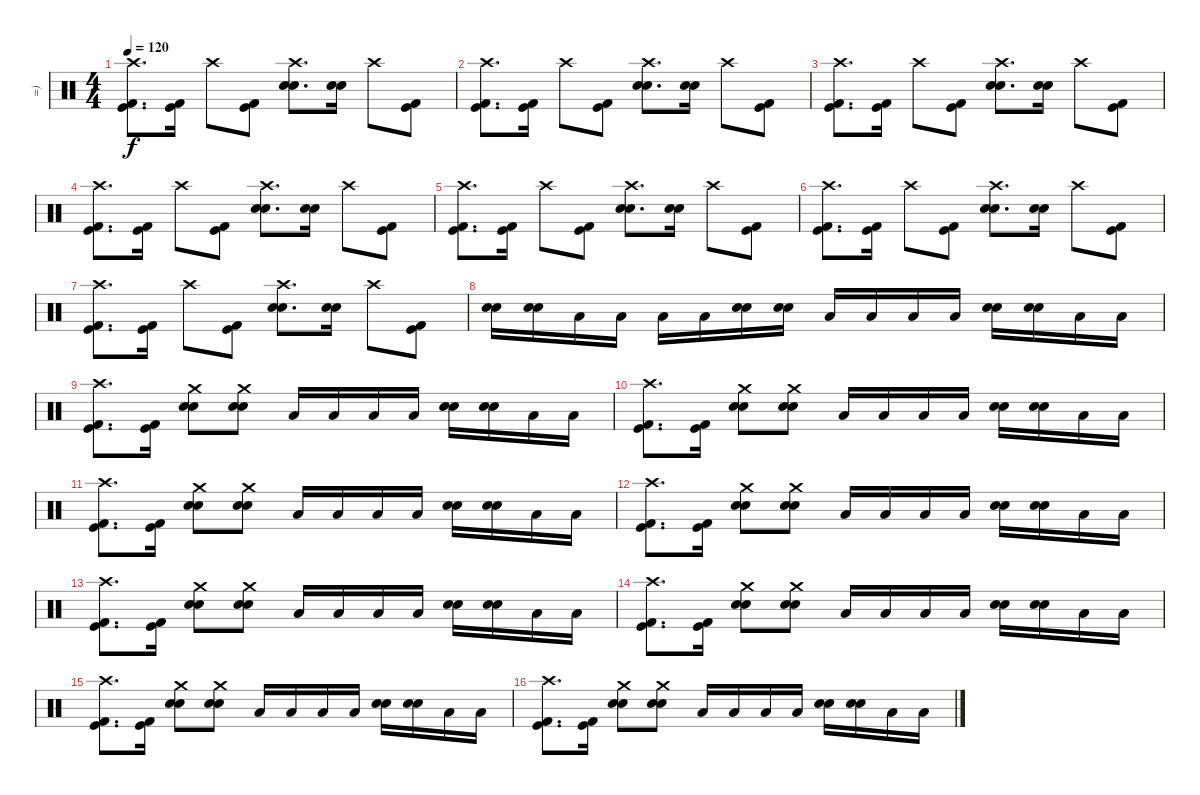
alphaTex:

\track ("=)" "=)") {instrument percussion}
\staff {score}
\articulation defaults
\ts (4 4)
\tempo 120
\clef neutral
\ks c
("Crash high (hit)" "Kick (hit)" "Kick (hit) 2").8{d dy f} ("Kick (hit)" "Kick (hit) 2").16 "Crash high (hit)".8 ("Kick (hit)" "Kick (hit) 2").8 ("Crash high (hit)" "Snare (hit) 2" "Electric Snare (hit)").8{d} ("Snare (hit) 2" "Electric Snare (hit)").16 "Crash high (hit)".8 ("Kick (hit)" "Kick (hit) 2").8 |
("Crash high (hit)" "Kick (hit)" "Kick (hit) 2").8{d} ("Kick (hit)" "Kick (hit) 2").16 "Crash high (hit)".8 ("Kick (hit)" "Kick (hit) 2").8 ("Crash high (hit)" "Snare (hit) 2" "Electric Snare (hit)").8{d} ("Snare (hit) 2" "Electric Snare (hit)").16 "Crash high (hit)".8 ("Kick (hit)" "Kick (hit) 2").8 |
("Crash high (hit)" "Kick (hit)" "Kick (hit) 2").8{d} ("Kick (hit)" "Kick (hit) 2").16 "Crash high (hit)".8 ("Kick (hit)" "Kick (hit) 2").8 ("Crash high (hit)" "Snare (hit) 2" "Electric Snare (hit)").8{d} ("Snare (hit) 2" "Electric Snare (hit)").16 "Crash high (hit)".8 ("Kick (hit)" "Kick (hit) 2").8 |
("Crash high (hit)" "Kick (hit)" "Kick (hit) 2").8{d} ("Kick (hit)" "Kick (hit) 2").16 "Crash high (hit)".8 ("Kick (hit)" "Kick (hit) 2").8 ("Crash high (hit)" "Snare (hit) 2" "Electric Snare (hit)").8{d} ("Snare (hit) 2" "Electric Snare (hit)").16 "Crash high (hit)".8 ("Kick (hit)" "Kick (hit) 2").8 |
("Crash high (hit)" "Kick (hit)" "Kick (hit) 2").8{d} ("Kick (hit)" "Kick (hit) 2").16 "Crash high (hit)".8 ("Kick (hit)" "Kick (hit) 2").8 ("Crash high (hit)" "Snare (hit) 2" "Electric Snare (hit)").8{d} ("Snare (hit) 2" "Electric Snare (hit)").16 "Crash high (hit)".8 ("Kick (hit)" "Kick (hit) 2").8 |
("Crash high (hit)" "Kick (hit)" "Kick (hit) 2").8{d} ("Kick (hit)" "Kick (hit) 2").16 "Crash high (hit)".8 ("Kick (hit)" "Kick (hit) 2").8 ("Crash high (hit)" "Snare (hit) 2" "Electric Snare (hit)").8{d} ("Snare (hit) 2" "Electric Snare (hit)").16 "Crash high (hit)".8 ("Kick (hit)" "Kick (hit) 2").8 |
("Crash high (hit)" "Kick (hit)" "Kick (hit) 2").8{d} ("Kick (hit)" "Kick (hit) 2").16 "Crash high (hit)".8 ("Kick (hit)" "Kick (hit) 2").8 ("Crash high (hit)" "Snare (hit) 2" "Electric Snare (hit)").8{d} ("Snare (hit) 2" "Electric Snare (hit)").16 "Crash high (hit)".8 ("Kick (hit)" "Kick (hit) 2").8 |
("Electric Snare (hit)" "Snare (hit) 2").16 ("Electric Snare (hit)" "Snare (hit) 2").16 "Low Floor Tom (hit)".16 "Low Floor Tom (hit)".16 "Low Tom (hit)".16 "Low Floor Tom (hit)".16 ("Electric Snare (hit)" "Snare (hit) 2").16 ("Electric Snare (hit)" "Snare (hit) 2").16 "Low Floor Tom (hit)".16 "Low Floor Tom (hit)".16 "Low Tom (hit)".16 "Low Floor Tom (hit)".16 ("Electric Snare (hit)" "Snare (hit) 2").16 ("Electric Snare (hit)" "Snare (hit) 2").16 "Low Tom (hit)".16 "Low Floor Tom (hit)".16 |
("Crash high (hit)" "Kick (hit)" "Kick (hit) 2").8{d} ("Kick (hit)" "Kick (hit) 2").16 ("Crash medium (hit)" "Snare (hit) 2" "Electric Snare (hit)").8 ("Crash medium (hit)" "Snare (hit) 2" "Electric Snare (hit)").8 "Low Floor Tom (hit)".16 "Low Tom (hit)".16 "Low Floor Tom (hit)".16 "Low Floor Tom (hit)".16 ("Snare (hit) 2" "Electric Snare (hit)").16 ("Snare (hit) 2" "Electric Snare (hit)").16 "Low Floor Tom (hit)".16 "Low Tom (hit)".16 |
("Crash high (hit)" "Kick (hit)" "Kick (hit) 2").8{d} ("Kick (hit)" "Kick (hit) 2").16 ("Crash medium (hit)" "Snare (hit) 2" "Electric Snare (hit)").8 ("Crash medium (hit)" "Snare (hit) 2" "Electric Snare (hit)").8 "Low Floor Tom (hit)".16 "Low Tom (hit)".16 "Low Floor Tom (hit)".16 "Low Floor Tom (hit)".16 ("Snare (hit) 2" "Electric Snare (hit)").16 ("Snare (hit) 2" "Electric Snare (hit)").16 "Low Floor Tom (hit)".16 "Low Tom (hit)".16 |
("Crash high (hit)" "Kick (hit)" "Kick (hit) 2").8{d} ("Kick (hit)" "Kick (hit) 2").16 ("Crash medium (hit)" "Snare (hit) 2" "Electric Snare (hit)").8 ("Crash medium (hit)" "Snare (hit) 2" "Electric Snare (hit)").8 "Low Floor Tom (hit)".16 "Low Tom (hit)".16 "Low Floor Tom (hit)".16 "Low Floor Tom (hit)".16 ("Snare (hit) 2" "Electric Snare (hit)").16 ("Snare (hit) 2" "Electric Snare (hit)").16 "Low Floor Tom (hit)".16 "Low Tom (hit)".16 |
("Crash high (hit)" "Kick (hit)" "Kick (hit) 2").8{d} ("Kick (hit)" "Kick (hit) 2").16 ("Crash medium (hit)" "Snare (hit) 2" "Electric Snare (hit)").8 ("Crash medium (hit)" "Snare (hit) 2" "Electric Snare (hit)").8 "Low Floor Tom (hit)".16 "Low Tom (hit)".16 "Low Floor Tom (hit)".16 "Low Floor Tom (hit)".16 ("Snare (hit) 2" "Electric Snare (hit)").16 ("Snare (hit) 2" "Electric Snare (hit)").16 "Low Floor Tom (hit)".16 "Low Tom (hit)".16 |
("Crash high (hit)" "Kick (hit)" "Kick (hit) 2").8{d} ("Kick (hit)" "Kick (hit) 2").16 ("Crash medium (hit)" "Snare (hit) 2" "Electric Snare (hit)").8 ("Crash medium (hit)" "Snare (hit) 2" "Electric Snare (hit)").8 "Low Floor Tom (hit)".16 "Low Tom (hit)".16 "Low Floor Tom (hit)".16 "Low Floor Tom (hit)".16 ("Snare (hit) 2" "Electric Snare (hit)").16 ("Snare (hit) 2" "Electric Snare (hit)").16 "Low Floor Tom (hit)".16 "Low Tom (hit)".16 |
("Crash high (hit)" "Kick (hit)" "Kick (hit) 2").8{d} ("Kick (hit)" "Kick (hit) 2").16 ("Crash medium (hit)" "Snare (hit) 2" "Electric Snare (hit)").8 ("Crash medium (hit)" "Snare (hit) 2" "Electric Snare (hit)").8 "Low Floor Tom (hit)".16 "Low Tom (hit)".16 "Low Floor Tom (hit)".16 "Low Floor Tom (hit)".16 ("Snare (hit) 2" "Electric Snare (hit)").16 ("Snare (hit) 2" "Electric Snare (hit)").16 "Low Floor Tom (hit)".16 "Low Tom (hit)".16 |
("Crash high (hit)" "Kick (hit)" "Kick (hit) 2").8{d} ("Kick (hit)" "Kick (hit) 2").16 ("Crash medium (hit)" "Snare (hit) 2" "Electric Snare (hit)").8 ("Crash medium (hit)" "Snare (hit) 2" "Electric Snare (hit)").8 "Low Floor Tom (hit)".16 "Low Tom (hit)".16 "Low Floor Tom (hit)".16 "Low Floor Tom (hit)".16 ("Snare (hit) 2" "Electric Snare (hit)").16 ("Snare (hit) 2" "Electric Snare (hit)").16 "Low Floor Tom (hit)".16 "Low Tom (hit)".16 |
("Crash high (hit)" "Kick (hit)" "Kick (hit) 2").8{d} ("Kick (hit)" "Kick (hit) 2").16 ("Crash medium (hit)" "Snare (hit) 2" "Electric Snare (hit)").8 ("Crash medium (hit)" "Snare (hit) 2" "Electric Snare (hit)").8 "Low Floor Tom (hit)".16 "Low Tom (hit)".16 "Low Floor Tom (hit)".16 "Low Floor Tom (hit)".16 ("Snare (hit) 2" "Electric Snare (hit)").16 ("Snare (hit) 2" "Electric Snare (hit)").16 "Low Floor Tom (hit)".16 "Low Tom (hit)".16
